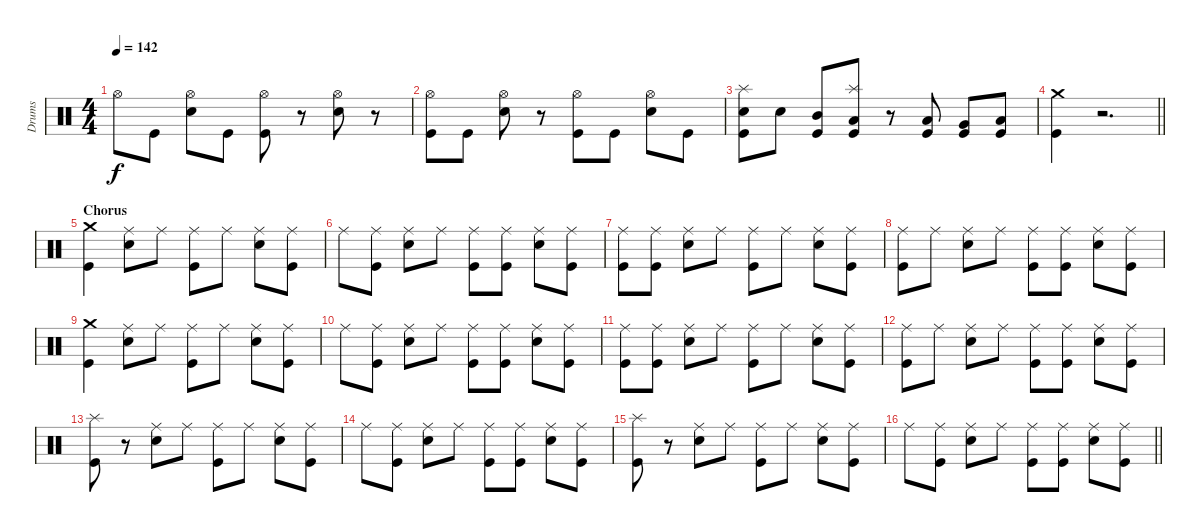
\track ("Drums" "Drums") {instrument percussion}
\staff {score}
\articulation defaults
\ts (4 4)
\tempo 142
\clef neutral
\ks c "Hi-Hat (open)".8{dy f} "Kick (hit)".8
("Hi-Hat (open)" "Electric Snare (hit)").8 "Kick (hit)".8 ("Hi-Hat (open)" "Kick (hit)").8 r.8 ("Hi-Hat (open)" "Electric Snare (hit)").8 r.8 |
("Hi-Hat (open)" "Kick (hit)").8 "Kick (hit)".8 ("Hi-Hat (open)" "Electric Snare (hit)").8 r.8 ("Hi-Hat (open)" "Kick (hit)").8 "Kick (hit)".8 ("Hi-Hat (open)" "Electric Snare (hit)").8 "Kick (hit)".8 |
("Splash (hit)" "Electric Snare (hit)" "Kick (hit)").8 "Electric Snare (hit)".8 ("Mid Tom (hit)" "Kick (hit)").8 ("Splash (hit)" "Low Tom (hit)" "Kick (hit)").8 r.8 ("Low Tom (hit)" "Kick (hit)").8 ("Very Low Tom (hit)" "Kick (hit)").8 ("Low Floor Tom (hit)" "Kick (hit)").8 |
\barLineRight lightlight
("Crash medium (hit)" "Kick (hit)").4 r.2{d} |
\section ("" "Chorus")
("Crash medium (hit)" "Kick (hit)").4 ("Ride (middle)" "Electric Snare (hit)").8 "Ride (middle)".8 ("Ride (middle)" "Kick (hit)").8 "Ride (middle)".8 ("Ride (middle)" "Electric Snare (hit)").8 ("Ride (middle)" "Kick (hit)").8 |
"Ride (middle)".8 ("Ride (middle)" "Kick (hit)").8 ("Ride (middle)" "Electric Snare (hit)").8 "Ride (middle)".8 ("Ride (middle)" "Kick (hit)").8 ("Ride (middle)" "Kick (hit)").8 ("Ride (middle)" "Electric Snare (hit)").8 ("Ride (middle)" "Kick (hit)").8 |
("Ride (middle)" "Kick (hit)").8 ("Ride (middle)" "Kick (hit)").8 ("Ride (middle)" "Electric Snare (hit)").8 "Ride (middle)".8 ("Ride (middle)" "Kick (hit)").8 "Ride (middle)".8 ("Ride (middle)" "Electric Snare (hit)").8 ("Ride (middle)" "Kick (hit)").8 |
("Ride (middle)" "Kick (hit)").8 "Ride (middle)".8 ("Ride (middle)" "Electric Snare (hit)").8 "Ride (middle)".8 ("Ride (middle)" "Kick (hit)").8 ("Ride (middle)" "Kick (hit)").8 ("Ride (middle)" "Electric Snare (hit)").8 ("Ride (middle)" "Kick (hit)").8 |
("Crash medium (hit)" "Kick (hit)").4 ("Ride (middle)" "Electric Snare (hit)").8 "Ride (middle)".8 ("Ride (middle)" "Kick (hit)").8 "Ride (middle)".8 ("Ride (middle)" "Electric Snare (hit)").8 ("Ride (middle)" "Kick (hit)").8 |
"Ride (middle)".8 ("Ride (middle)" "Kick (hit)").8 ("Ride (middle)" "Electric Snare (hit)").8 "Ride (middle)".8 ("Ride (middle)" "Kick (hit)").8 ("Ride (middle)" "Kick (hit)").8 ("Ride (middle)" "Electric Snare (hit)").8 ("Ride (middle)" "Kick (hit)").8 |
("Ride (middle)" "Kick (hit)").8 ("Ride (middle)" "Kick (hit)").8 ("Ride (middle)" "Electric Snare (hit)").8 "Ride (middle)".8 ("Ride (middle)" "Kick (hit)").8 "Ride (middle)".8 ("Ride (middle)" "Electric Snare (hit)").8 ("Ride (middle)" "Kick (hit)").8 |
("Ride (middle)" "Kick (hit)").8 "Ride (middle)".8 ("Ride (middle)" "Electric Snare (hit)").8 "Ride (middle)".8 ("Ride (middle)" "Kick (hit)").8 ("Ride (middle)" "Kick (hit)").8 ("Ride (middle)" "Electric Snare (hit)").8 ("Ride (middle)" "Kick (hit)").8 |
("Splash (hit)" "Kick (hit)").8 r.8 ("Ride (middle)" "Electric Snare (hit)").8 "Ride (middle)".8 ("Ride (middle)" "Kick (hit)").8 "Ride (middle)".8 ("Ride (middle)" "Electric Snare (hit)").8 ("Ride (middle)" "Kick (hit)").8 |
"Ride (middle)".8 ("Ride (middle)" "Kick (hit)").8 ("Ride (middle)" "Electric Snare (hit)").8 "Ride (middle)".8 ("Ride (middle)" "Kick (hit)").8 ("Ride (middle)" "Kick (hit)").8 ("Ride (middle)" "Electric Snare (hit)").8 ("Ride (middle)" "Kick (hit)").8 |
("Splash (hit)" "Kick (hit)").8 r.8 ("Ride (middle)" "Electric Snare (hit)").8 "Ride (middle)".8 ("Ride (middle)" "Kick (hit)").8 "Ride (middle)".8 ("Ride (middle)" "Electric Snare (hit)").8 ("Ride (middle)" "Kick (hit)").8 |
\barLineRight lightlight "Ride (middle)".8
("Ride (middle)" "Kick (hit)").8 ("Ride (middle)" "Electric Snare (hit)").8 "Ride (middle)".8 ("Ride (middle)" "Kick (hit)").8 ("Ride (middle)" "Kick (hit)").8 ("Ride (middle)" "Electric Snare (hit)").8 ("Ride (middle)" "Kick (hit)").8
